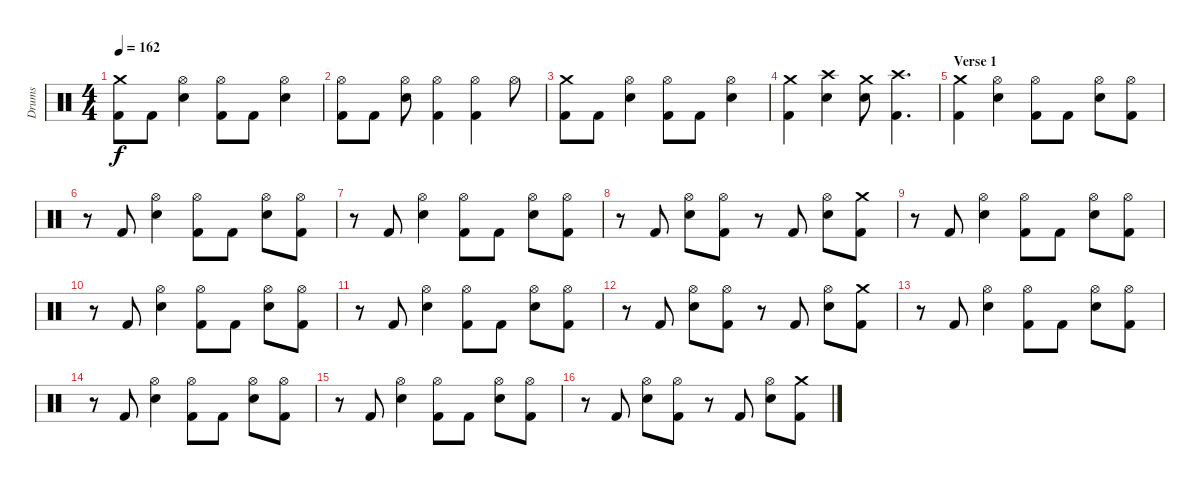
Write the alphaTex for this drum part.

\track ("Drums" "Drums") {instrument percussion}
\staff {score}
\articulation defaults
\ts (4 4)
\tempo 162
\clef neutral
\ks c
("Crash medium (hit)" "Kick (hit) 2").8{dy f} "Kick (hit) 2".8 ("Hi-Hat (open)" "Snare (hit) 2").4 ("Hi-Hat (open)" "Kick (hit) 2").8 "Kick (hit) 2".8 ("Hi-Hat (open)" "Snare (hit) 2").4 |
("Hi-Hat (open)" "Kick (hit) 2").8 "Kick (hit) 2".8 ("Hi-Hat (open)" "Snare (hit) 2").8 ("Hi-Hat (open)" "Kick (hit) 2").4 ("Hi-Hat (open)" "Kick (hit) 2").4 "Hi-Hat (open)".8 |
("Crash medium (hit)" "Kick (hit) 2").8 "Kick (hit) 2".8 ("Hi-Hat (open)" "Snare (hit) 2").4 ("Hi-Hat (open)" "Kick (hit) 2").8 "Kick (hit) 2".8 ("Hi-Hat (open)" "Snare (hit) 2").4 |
("Crash medium (hit)" "Kick (hit) 2").4 ("Crash high (hit)" "Snare (hit) 2").4 ("Crash medium (hit)" "Snare (hit) 2").8 ("Crash high (hit)" "Kick (hit) 2").4{d} |
\section ("" "Verse 1")
("Crash medium (hit)" "Kick (hit) 2").4 ("Hi-Hat (open)" "Snare (hit) 2").4 ("Hi-Hat (open)" "Kick (hit) 2").8 "Kick (hit) 2".8 ("Hi-Hat (open)" "Snare (hit) 2").8 ("Hi-Hat (open)" "Kick (hit) 2").8 |
r.8 "Kick (hit) 2".8 ("Hi-Hat (open)" "Snare (hit) 2").4 ("Hi-Hat (open)" "Kick (hit) 2").8 "Kick (hit) 2".8 ("Hi-Hat (open)" "Snare (hit) 2").8 ("Hi-Hat (open)" "Kick (hit) 2").8 |
r.8 "Kick (hit) 2".8 ("Hi-Hat (open)" "Snare (hit) 2").4 ("Hi-Hat (open)" "Kick (hit) 2").8 "Kick (hit) 2".8 ("Hi-Hat (open)" "Snare (hit) 2").8 ("Hi-Hat (open)" "Kick (hit) 2").8 |
r.8 "Kick (hit) 2".8 ("Hi-Hat (open)" "Snare (hit) 2").8 ("Hi-Hat (open)" "Kick (hit) 2").8 r.8 "Kick (hit) 2".8 ("Hi-Hat (open)" "Snare (hit) 2").8 ("Crash medium (hit)" "Kick (hit) 2").8 |
r.8 "Kick (hit) 2".8 ("Hi-Hat (open)" "Snare (hit) 2").4 ("Hi-Hat (open)" "Kick (hit) 2").8 "Kick (hit) 2".8 ("Hi-Hat (open)" "Snare (hit) 2").8 ("Hi-Hat (open)" "Kick (hit) 2").8 |
r.8 "Kick (hit) 2".8 ("Hi-Hat (open)" "Snare (hit) 2").4 ("Hi-Hat (open)" "Kick (hit) 2").8 "Kick (hit) 2".8 ("Hi-Hat (open)" "Snare (hit) 2").8 ("Hi-Hat (open)" "Kick (hit) 2").8 |
r.8 "Kick (hit) 2".8 ("Hi-Hat (open)" "Snare (hit) 2").4 ("Hi-Hat (open)" "Kick (hit) 2").8 "Kick (hit) 2".8 ("Hi-Hat (open)" "Snare (hit) 2").8 ("Hi-Hat (open)" "Kick (hit) 2").8 |
r.8 "Kick (hit) 2".8 ("Hi-Hat (open)" "Snare (hit) 2").8 ("Hi-Hat (open)" "Kick (hit) 2").8 r.8 "Kick (hit) 2".8 ("Hi-Hat (open)" "Snare (hit) 2").8 ("Crash medium (hit)" "Kick (hit) 2").8 |
r.8 "Kick (hit) 2".8 ("Hi-Hat (open)" "Snare (hit) 2").4 ("Hi-Hat (open)" "Kick (hit) 2").8 "Kick (hit) 2".8 ("Hi-Hat (open)" "Snare (hit) 2").8 ("Hi-Hat (open)" "Kick (hit) 2").8 |
r.8 "Kick (hit) 2".8 ("Hi-Hat (open)" "Snare (hit) 2").4 ("Hi-Hat (open)" "Kick (hit) 2").8 "Kick (hit) 2".8 ("Hi-Hat (open)" "Snare (hit) 2").8 ("Hi-Hat (open)" "Kick (hit) 2").8 |
r.8 "Kick (hit) 2".8 ("Hi-Hat (open)" "Snare (hit) 2").4 ("Hi-Hat (open)" "Kick (hit) 2").8 "Kick (hit) 2".8 ("Hi-Hat (open)" "Snare (hit) 2").8 ("Hi-Hat (open)" "Kick (hit) 2").8 |
r.8 "Kick (hit) 2".8 ("Hi-Hat (open)" "Snare (hit) 2").8 ("Hi-Hat (open)" "Kick (hit) 2").8 r.8 "Kick (hit) 2".8 ("Hi-Hat (open)" "Snare (hit) 2").8 ("Crash medium (hit)" "Kick (hit) 2").8
